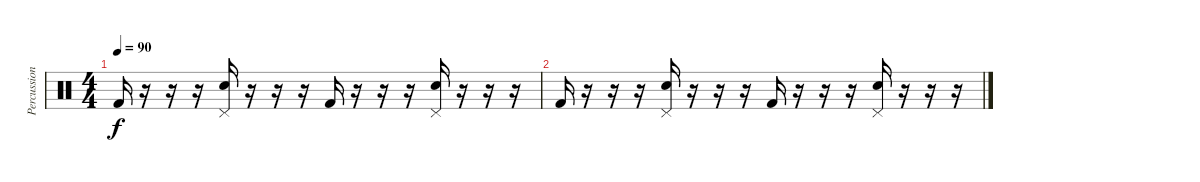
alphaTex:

\track ("Percussion" "Percussion") {instrument percussion}
\staff {score}
\articulation defaults
\ts (4 4)
\tempo 90
\clef neutral
\ks c "Kick (hit) 2".16{dy f}
r.16 r.16 r.16 ("Pedal Hi-Hat (hit)" "Snare (hit) 2").16 r.16 r.16 r.16 "Kick (hit) 2".16 r.16 r.16 r.16 ("Pedal Hi-Hat (hit)" "Snare (hit) 2").16 r.16 r.16 r.16 |
"Kick (hit) 2".16 r.16 r.16 r.16 ("Pedal Hi-Hat (hit)" "Snare (hit) 2").16 r.16 r.16 r.16 "Kick (hit) 2".16 r.16 r.16 r.16 ("Pedal Hi-Hat (hit)" "Snare (hit) 2").16 r.16 r.16 r.16
